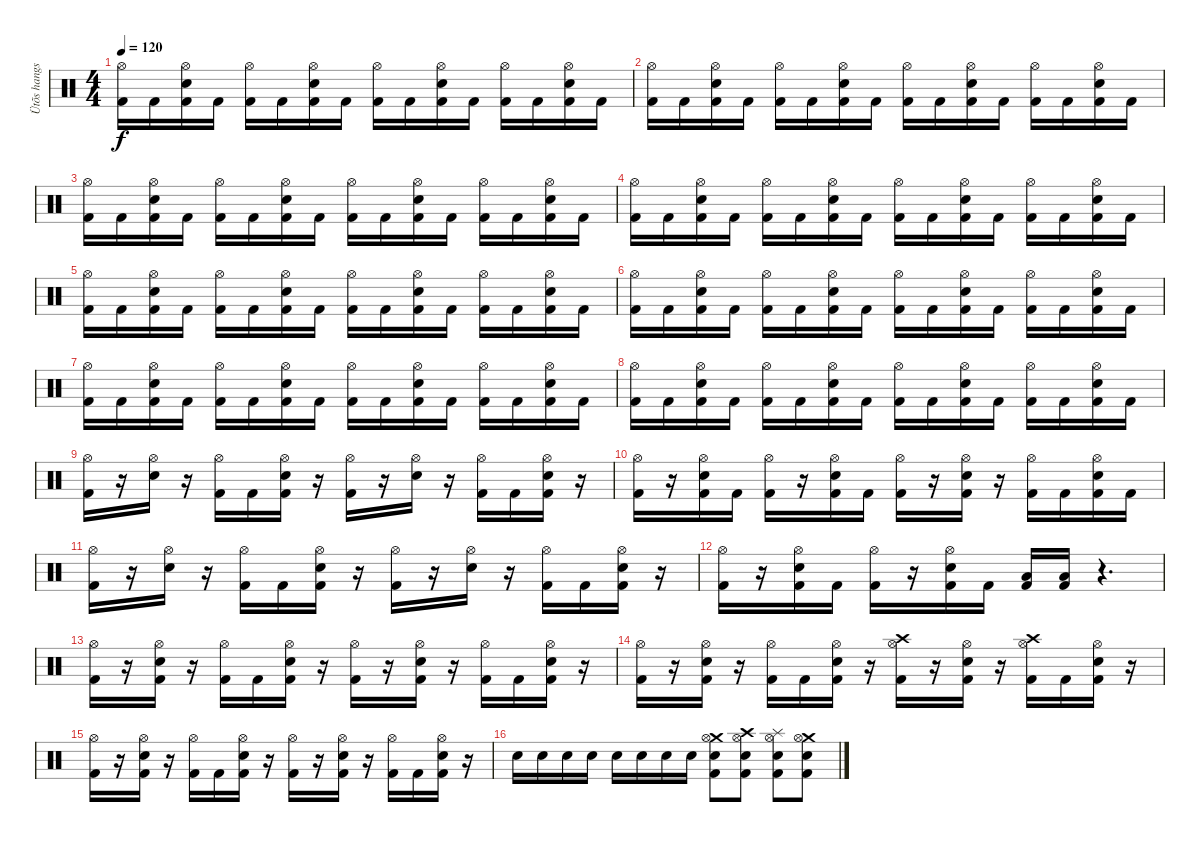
\track ("Ütõs hangszer" "Ütõs hangs") {instrument percussion}
\staff {score}
\articulation defaults
\ts (4 4)
\tempo 120
\clef neutral
\ks c
("Hi-Hat (open)" "Kick (hit) 2").16{dy f} "Kick (hit) 2".16 ("Hi-Hat (open)" "Electric Snare (hit)" "Kick (hit) 2").16 "Kick (hit) 2".16 ("Hi-Hat (open)" "Kick (hit) 2").16 "Kick (hit) 2".16 ("Hi-Hat (open)" "Electric Snare (hit)" "Kick (hit) 2").16 "Kick (hit) 2".16 ("Hi-Hat (open)" "Kick (hit) 2").16 "Kick (hit) 2".16 ("Hi-Hat (open)" "Electric Snare (hit)" "Kick (hit) 2").16 "Kick (hit) 2".16 ("Hi-Hat (open)" "Kick (hit) 2").16 "Kick (hit) 2".16 ("Hi-Hat (open)" "Electric Snare (hit)" "Kick (hit) 2").16 "Kick (hit) 2".16 |
("Hi-Hat (open)" "Kick (hit) 2").16 "Kick (hit) 2".16 ("Hi-Hat (open)" "Electric Snare (hit)" "Kick (hit) 2").16 "Kick (hit) 2".16 ("Hi-Hat (open)" "Kick (hit) 2").16 "Kick (hit) 2".16 ("Hi-Hat (open)" "Electric Snare (hit)" "Kick (hit) 2").16 "Kick (hit) 2".16 ("Hi-Hat (open)" "Kick (hit) 2").16 "Kick (hit) 2".16 ("Hi-Hat (open)" "Electric Snare (hit)" "Kick (hit) 2").16 "Kick (hit) 2".16 ("Hi-Hat (open)" "Kick (hit) 2").16 "Kick (hit) 2".16 ("Hi-Hat (open)" "Electric Snare (hit)" "Kick (hit) 2").16 "Kick (hit) 2".16 |
("Hi-Hat (open)" "Kick (hit) 2").16 "Kick (hit) 2".16 ("Hi-Hat (open)" "Electric Snare (hit)" "Kick (hit) 2").16 "Kick (hit) 2".16 ("Hi-Hat (open)" "Kick (hit) 2").16 "Kick (hit) 2".16 ("Hi-Hat (open)" "Electric Snare (hit)" "Kick (hit) 2").16 "Kick (hit) 2".16 ("Hi-Hat (open)" "Kick (hit) 2").16 "Kick (hit) 2".16 ("Hi-Hat (open)" "Electric Snare (hit)" "Kick (hit) 2").16 "Kick (hit) 2".16 ("Hi-Hat (open)" "Kick (hit) 2").16 "Kick (hit) 2".16 ("Hi-Hat (open)" "Electric Snare (hit)" "Kick (hit) 2").16 "Kick (hit) 2".16 |
("Hi-Hat (open)" "Kick (hit) 2").16 "Kick (hit) 2".16 ("Hi-Hat (open)" "Electric Snare (hit)" "Kick (hit) 2").16 "Kick (hit) 2".16 ("Hi-Hat (open)" "Kick (hit) 2").16 "Kick (hit) 2".16 ("Hi-Hat (open)" "Electric Snare (hit)" "Kick (hit) 2").16 "Kick (hit) 2".16 ("Hi-Hat (open)" "Kick (hit) 2").16 "Kick (hit) 2".16 ("Hi-Hat (open)" "Electric Snare (hit)" "Kick (hit) 2").16 "Kick (hit) 2".16 ("Hi-Hat (open)" "Kick (hit) 2").16 "Kick (hit) 2".16 ("Hi-Hat (open)" "Electric Snare (hit)" "Kick (hit) 2").16 "Kick (hit) 2".16 |
("Hi-Hat (open)" "Kick (hit) 2").16 "Kick (hit) 2".16 ("Hi-Hat (open)" "Electric Snare (hit)" "Kick (hit) 2").16 "Kick (hit) 2".16 ("Hi-Hat (open)" "Kick (hit) 2").16 "Kick (hit) 2".16 ("Hi-Hat (open)" "Electric Snare (hit)" "Kick (hit) 2").16 "Kick (hit) 2".16 ("Hi-Hat (open)" "Kick (hit) 2").16 "Kick (hit) 2".16 ("Hi-Hat (open)" "Electric Snare (hit)" "Kick (hit) 2").16 "Kick (hit) 2".16 ("Hi-Hat (open)" "Kick (hit) 2").16 "Kick (hit) 2".16 ("Hi-Hat (open)" "Electric Snare (hit)" "Kick (hit) 2").16 "Kick (hit) 2".16 |
("Hi-Hat (open)" "Kick (hit) 2").16 "Kick (hit) 2".16 ("Hi-Hat (open)" "Electric Snare (hit)" "Kick (hit) 2").16 "Kick (hit) 2".16 ("Hi-Hat (open)" "Kick (hit) 2").16 "Kick (hit) 2".16 ("Hi-Hat (open)" "Electric Snare (hit)" "Kick (hit) 2").16 "Kick (hit) 2".16 ("Hi-Hat (open)" "Kick (hit) 2").16 "Kick (hit) 2".16 ("Hi-Hat (open)" "Electric Snare (hit)" "Kick (hit) 2").16 "Kick (hit) 2".16 ("Hi-Hat (open)" "Kick (hit) 2").16 "Kick (hit) 2".16 ("Hi-Hat (open)" "Electric Snare (hit)" "Kick (hit) 2").16 "Kick (hit) 2".16 |
("Hi-Hat (open)" "Kick (hit) 2").16 "Kick (hit) 2".16 ("Hi-Hat (open)" "Electric Snare (hit)" "Kick (hit) 2").16 "Kick (hit) 2".16 ("Hi-Hat (open)" "Kick (hit) 2").16 "Kick (hit) 2".16 ("Hi-Hat (open)" "Electric Snare (hit)" "Kick (hit) 2").16 "Kick (hit) 2".16 ("Hi-Hat (open)" "Kick (hit) 2").16 "Kick (hit) 2".16 ("Hi-Hat (open)" "Electric Snare (hit)" "Kick (hit) 2").16 "Kick (hit) 2".16 ("Hi-Hat (open)" "Kick (hit) 2").16 "Kick (hit) 2".16 ("Hi-Hat (open)" "Electric Snare (hit)" "Kick (hit) 2").16 "Kick (hit) 2".16 |
("Hi-Hat (open)" "Kick (hit) 2").16 "Kick (hit) 2".16 ("Hi-Hat (open)" "Electric Snare (hit)" "Kick (hit) 2").16 "Kick (hit) 2".16 ("Hi-Hat (open)" "Kick (hit) 2").16 "Kick (hit) 2".16 ("Hi-Hat (open)" "Electric Snare (hit)" "Kick (hit) 2").16 "Kick (hit) 2".16 ("Hi-Hat (open)" "Kick (hit) 2").16 "Kick (hit) 2".16 ("Hi-Hat (open)" "Electric Snare (hit)" "Kick (hit) 2").16 "Kick (hit) 2".16 ("Hi-Hat (open)" "Kick (hit) 2").16 "Kick (hit) 2".16 ("Hi-Hat (open)" "Electric Snare (hit)" "Kick (hit) 2").16 "Kick (hit) 2".16 |
("Hi-Hat (open)" "Kick (hit) 2").16 r.16 ("Hi-Hat (open)" "Electric Snare (hit)").16 r.16 ("Hi-Hat (open)" "Kick (hit) 2").16 "Kick (hit) 2".16 ("Hi-Hat (open)" "Electric Snare (hit)" "Kick (hit) 2").16 r.16 ("Hi-Hat (open)" "Kick (hit) 2").16 r.16 ("Hi-Hat (open)" "Electric Snare (hit)").16 r.16 ("Hi-Hat (open)" "Kick (hit) 2").16 "Kick (hit) 2".16 ("Hi-Hat (open)" "Electric Snare (hit)" "Kick (hit) 2").16 r.16 |
("Hi-Hat (open)" "Kick (hit) 2").16 r.16 ("Hi-Hat (open)" "Electric Snare (hit)" "Kick (hit) 2").16 "Kick (hit) 2".16 ("Hi-Hat (open)" "Kick (hit) 2").16 r.16 ("Hi-Hat (open)" "Electric Snare (hit)" "Kick (hit) 2").16 "Kick (hit) 2".16 ("Hi-Hat (open)" "Kick (hit) 2").16 r.16 ("Hi-Hat (open)" "Electric Snare (hit)" "Kick (hit) 2").16 r.16 ("Hi-Hat (open)" "Kick (hit) 2").16 "Kick (hit) 2".16 ("Hi-Hat (open)" "Electric Snare (hit)" "Kick (hit) 2").16 "Kick (hit) 2".16 |
("Hi-Hat (open)" "Kick (hit) 2").16 r.16 ("Hi-Hat (open)" "Electric Snare (hit)").16 r.16 ("Hi-Hat (open)" "Kick (hit) 2").16 "Kick (hit) 2".16 ("Hi-Hat (open)" "Electric Snare (hit)" "Kick (hit) 2").16 r.16 ("Hi-Hat (open)" "Kick (hit) 2").16 r.16 ("Hi-Hat (open)" "Electric Snare (hit)").16 r.16 ("Hi-Hat (open)" "Kick (hit) 2").16 "Kick (hit) 2".16 ("Hi-Hat (open)" "Electric Snare (hit)" "Kick (hit) 2").16 r.16 |
("Hi-Hat (open)" "Kick (hit) 2").16 r.16 ("Hi-Hat (open)" "Electric Snare (hit)" "Kick (hit) 2").16 "Kick (hit) 2".16 ("Hi-Hat (open)" "Kick (hit) 2").16 r.16 ("Hi-Hat (open)" "Electric Snare (hit)" "Kick (hit) 2").16 "Kick (hit) 2".16 ("Low Floor Tom (hit)" "Kick (hit) 2").16 ("Low Floor Tom (hit)" "Kick (hit) 2").16 r.4{d} |
("Hi-Hat (open)" "Kick (hit) 2").16 r.16 ("Hi-Hat (open)" "Electric Snare (hit)" "Kick (hit) 2").16 r.16 ("Hi-Hat (open)" "Kick (hit) 2").16 "Kick (hit) 2".16 ("Hi-Hat (open)" "Electric Snare (hit)" "Kick (hit) 2").16 r.16 ("Hi-Hat (open)" "Kick (hit) 2").16 r.16 ("Hi-Hat (open)" "Electric Snare (hit)" "Kick (hit) 2").16 r.16 ("Hi-Hat (open)" "Kick (hit) 2").16 "Kick (hit) 2".16 ("Hi-Hat (open)" "Electric Snare (hit)" "Kick (hit) 2").16 r.16 |
("Hi-Hat (open)" "Kick (hit) 2").16 r.16 ("Hi-Hat (open)" "Electric Snare (hit)" "Kick (hit) 2").16 r.16 ("Hi-Hat (open)" "Kick (hit) 2").16 "Kick (hit) 2".16 ("Hi-Hat (open)" "Electric Snare (hit)" "Kick (hit) 2").16 r.16 ("Crash high (hit)" "Hi-Hat (open)" "Kick (hit) 2").16 r.16 ("Hi-Hat (open)" "Electric Snare (hit)" "Kick (hit) 2").16 r.16 ("Crash high (hit)" "Hi-Hat (open)" "Kick (hit) 2").16 "Kick (hit) 2".16 ("Hi-Hat (open)" "Electric Snare (hit)" "Kick (hit) 2").16 r.16 |
("Hi-Hat (open)" "Kick (hit) 2").16 r.16 ("Hi-Hat (open)" "Electric Snare (hit)" "Kick (hit) 2").16 r.16 ("Hi-Hat (open)" "Kick (hit) 2").16 "Kick (hit) 2".16 ("Hi-Hat (open)" "Electric Snare (hit)" "Kick (hit) 2").16 r.16 ("Hi-Hat (open)" "Kick (hit) 2").16 r.16 ("Hi-Hat (open)" "Electric Snare (hit)" "Kick (hit) 2").16 r.16 ("Hi-Hat (open)" "Kick (hit) 2").16 "Kick (hit) 2".16 ("Hi-Hat (open)" "Electric Snare (hit)" "Kick (hit) 2").16 r.16 |
"Electric Snare (hit)".16 "Electric Snare (hit)".16 "Electric Snare (hit)".16 "Electric Snare (hit)".16 "Electric Snare (hit)".16 "Electric Snare (hit)".16 "Electric Snare (hit)".16 "Electric Snare (hit)".16 ("Crash medium (hit)" "Hi-Hat (open)" "Electric Snare (hit)" "Kick (hit) 2").8 ("Crash high (hit)" "Hi-Hat (open)" "Electric Snare (hit)" "Kick (hit) 2").8 ("Splash (hit)" "Hi-Hat (open)" "Electric Snare (hit)" "Kick (hit) 2").8 ("Crash medium (hit)" "Hi-Hat (open)" "Electric Snare (hit)" "Kick (hit) 2").8
